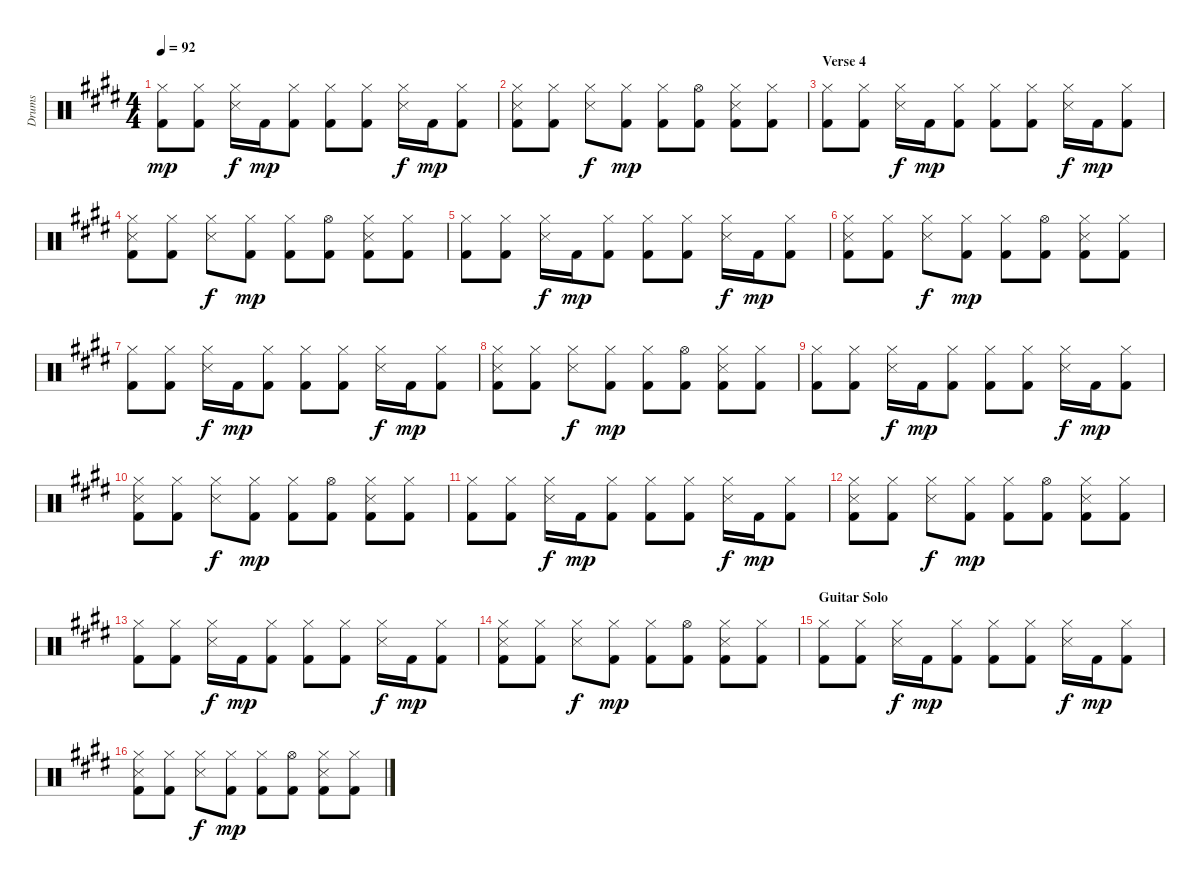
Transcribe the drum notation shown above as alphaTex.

\track ("Drums" "Drums") {instrument percussion}
\staff {score}
\articulation defaults
\ts (4 4)
\tempo 92
\clef neutral
\ks e
("Hi-Hat (closed)" "Kick (hit) 2").8{dy mp} ("Hi-Hat (closed)" "Kick (hit) 2").8 ("Hi-Hat (closed)" "Snare (side stick) 3").16{dy f} "Kick (hit) 2".16{dy mp} ("Hi-Hat (closed)" "Kick (hit) 2").8 ("Hi-Hat (closed)" "Kick (hit) 2").8 ("Hi-Hat (closed)" "Kick (hit) 2").8 ("Hi-Hat (closed)" "Snare (side stick) 3").16{dy f} "Kick (hit) 2".16{dy mp} ("Hi-Hat (closed)" "Kick (hit) 2").8 |
("Hi-Hat (closed)" "Snare (side stick) 3" "Kick (hit) 2").8 ("Hi-Hat (closed)" "Kick (hit) 2").8 ("Hi-Hat (closed)" "Snare (side stick) 3").8{dy f} ("Hi-Hat (closed)" "Kick (hit) 2").8{dy mp} ("Hi-Hat (closed)" "Kick (hit) 2").8 ("Hi-Hat (open)" "Kick (hit) 2").8 ("Hi-Hat (closed)" "Snare (side stick) 3" "Kick (hit) 2").8 ("Hi-Hat (closed)" "Kick (hit) 2").8 |
\section ("" "Verse 4")
("Hi-Hat (closed)" "Kick (hit) 2").8 ("Hi-Hat (closed)" "Kick (hit) 2").8 ("Hi-Hat (closed)" "Snare (side stick) 3").16{dy f} "Kick (hit) 2".16{dy mp} ("Hi-Hat (closed)" "Kick (hit) 2").8 ("Hi-Hat (closed)" "Kick (hit) 2").8 ("Hi-Hat (closed)" "Kick (hit) 2").8 ("Hi-Hat (closed)" "Snare (side stick) 3").16{dy f} "Kick (hit) 2".16{dy mp} ("Hi-Hat (closed)" "Kick (hit) 2").8 |
("Hi-Hat (closed)" "Snare (side stick) 3" "Kick (hit) 2").8 ("Hi-Hat (closed)" "Kick (hit) 2").8 ("Hi-Hat (closed)" "Snare (side stick) 3").8{dy f} ("Hi-Hat (closed)" "Kick (hit) 2").8{dy mp} ("Hi-Hat (closed)" "Kick (hit) 2").8 ("Hi-Hat (open)" "Kick (hit) 2").8 ("Hi-Hat (closed)" "Snare (side stick) 3" "Kick (hit) 2").8 ("Hi-Hat (closed)" "Kick (hit) 2").8 |
("Hi-Hat (closed)" "Kick (hit) 2").8 ("Hi-Hat (closed)" "Kick (hit) 2").8 ("Hi-Hat (closed)" "Snare (side stick) 3").16{dy f} "Kick (hit) 2".16{dy mp} ("Hi-Hat (closed)" "Kick (hit) 2").8 ("Hi-Hat (closed)" "Kick (hit) 2").8 ("Hi-Hat (closed)" "Kick (hit) 2").8 ("Hi-Hat (closed)" "Snare (side stick) 3").16{dy f} "Kick (hit) 2".16{dy mp} ("Hi-Hat (closed)" "Kick (hit) 2").8 |
("Hi-Hat (closed)" "Snare (side stick) 3" "Kick (hit) 2").8 ("Hi-Hat (closed)" "Kick (hit) 2").8 ("Hi-Hat (closed)" "Snare (side stick) 3").8{dy f} ("Hi-Hat (closed)" "Kick (hit) 2").8{dy mp} ("Hi-Hat (closed)" "Kick (hit) 2").8 ("Hi-Hat (open)" "Kick (hit) 2").8 ("Hi-Hat (closed)" "Snare (side stick) 3" "Kick (hit) 2").8 ("Hi-Hat (closed)" "Kick (hit) 2").8 |
("Hi-Hat (closed)" "Kick (hit) 2").8 ("Hi-Hat (closed)" "Kick (hit) 2").8 ("Hi-Hat (closed)" "Snare (side stick) 3").16{dy f} "Kick (hit) 2".16{dy mp} ("Hi-Hat (closed)" "Kick (hit) 2").8 ("Hi-Hat (closed)" "Kick (hit) 2").8 ("Hi-Hat (closed)" "Kick (hit) 2").8 ("Hi-Hat (closed)" "Snare (side stick) 3").16{dy f} "Kick (hit) 2".16{dy mp} ("Hi-Hat (closed)" "Kick (hit) 2").8 |
("Hi-Hat (closed)" "Snare (side stick) 3" "Kick (hit) 2").8 ("Hi-Hat (closed)" "Kick (hit) 2").8 ("Hi-Hat (closed)" "Snare (side stick) 3").8{dy f} ("Hi-Hat (closed)" "Kick (hit) 2").8{dy mp} ("Hi-Hat (closed)" "Kick (hit) 2").8 ("Hi-Hat (open)" "Kick (hit) 2").8 ("Hi-Hat (closed)" "Snare (side stick) 3" "Kick (hit) 2").8 ("Hi-Hat (closed)" "Kick (hit) 2").8 |
("Hi-Hat (closed)" "Kick (hit) 2").8 ("Hi-Hat (closed)" "Kick (hit) 2").8 ("Hi-Hat (closed)" "Snare (side stick) 3").16{dy f} "Kick (hit) 2".16{dy mp} ("Hi-Hat (closed)" "Kick (hit) 2").8 ("Hi-Hat (closed)" "Kick (hit) 2").8 ("Hi-Hat (closed)" "Kick (hit) 2").8 ("Hi-Hat (closed)" "Snare (side stick) 3").16{dy f} "Kick (hit) 2".16{dy mp} ("Hi-Hat (closed)" "Kick (hit) 2").8 |
("Hi-Hat (closed)" "Snare (side stick) 3" "Kick (hit) 2").8 ("Hi-Hat (closed)" "Kick (hit) 2").8 ("Hi-Hat (closed)" "Snare (side stick) 3").8{dy f} ("Hi-Hat (closed)" "Kick (hit) 2").8{dy mp} ("Hi-Hat (closed)" "Kick (hit) 2").8 ("Hi-Hat (open)" "Kick (hit) 2").8 ("Hi-Hat (closed)" "Snare (side stick) 3" "Kick (hit) 2").8 ("Hi-Hat (closed)" "Kick (hit) 2").8 |
("Hi-Hat (closed)" "Kick (hit) 2").8 ("Hi-Hat (closed)" "Kick (hit) 2").8 ("Hi-Hat (closed)" "Snare (side stick) 3").16{dy f} "Kick (hit) 2".16{dy mp} ("Hi-Hat (closed)" "Kick (hit) 2").8 ("Hi-Hat (closed)" "Kick (hit) 2").8 ("Hi-Hat (closed)" "Kick (hit) 2").8 ("Hi-Hat (closed)" "Snare (side stick) 3").16{dy f} "Kick (hit) 2".16{dy mp} ("Hi-Hat (closed)" "Kick (hit) 2").8 |
("Hi-Hat (closed)" "Snare (side stick) 3" "Kick (hit) 2").8 ("Hi-Hat (closed)" "Kick (hit) 2").8 ("Hi-Hat (closed)" "Snare (side stick) 3").8{dy f} ("Hi-Hat (closed)" "Kick (hit) 2").8{dy mp} ("Hi-Hat (closed)" "Kick (hit) 2").8 ("Hi-Hat (open)" "Kick (hit) 2").8 ("Hi-Hat (closed)" "Snare (side stick) 3" "Kick (hit) 2").8 ("Hi-Hat (closed)" "Kick (hit) 2").8 |
("Hi-Hat (closed)" "Kick (hit) 2").8 ("Hi-Hat (closed)" "Kick (hit) 2").8 ("Hi-Hat (closed)" "Snare (side stick) 3").16{dy f} "Kick (hit) 2".16{dy mp} ("Hi-Hat (closed)" "Kick (hit) 2").8 ("Hi-Hat (closed)" "Kick (hit) 2").8 ("Hi-Hat (closed)" "Kick (hit) 2").8 ("Hi-Hat (closed)" "Snare (side stick) 3").16{dy f} "Kick (hit) 2".16{dy mp} ("Hi-Hat (closed)" "Kick (hit) 2").8 |
("Hi-Hat (closed)" "Snare (side stick) 3" "Kick (hit) 2").8 ("Hi-Hat (closed)" "Kick (hit) 2").8 ("Hi-Hat (closed)" "Snare (side stick) 3").8{dy f} ("Hi-Hat (closed)" "Kick (hit) 2").8{dy mp} ("Hi-Hat (closed)" "Kick (hit) 2").8 ("Hi-Hat (open)" "Kick (hit) 2").8 ("Hi-Hat (closed)" "Snare (side stick) 3" "Kick (hit) 2").8 ("Hi-Hat (closed)" "Kick (hit) 2").8 |
\section ("" "Guitar Solo")
("Hi-Hat (closed)" "Kick (hit) 2").8 ("Hi-Hat (closed)" "Kick (hit) 2").8 ("Hi-Hat (closed)" "Snare (side stick) 3").16{dy f} "Kick (hit) 2".16{dy mp} ("Hi-Hat (closed)" "Kick (hit) 2").8 ("Hi-Hat (closed)" "Kick (hit) 2").8 ("Hi-Hat (closed)" "Kick (hit) 2").8 ("Hi-Hat (closed)" "Snare (side stick) 3").16{dy f} "Kick (hit) 2".16{dy mp} ("Hi-Hat (closed)" "Kick (hit) 2").8 |
("Hi-Hat (closed)" "Snare (side stick) 3" "Kick (hit) 2").8 ("Hi-Hat (closed)" "Kick (hit) 2").8 ("Hi-Hat (closed)" "Snare (side stick) 3").8{dy f} ("Hi-Hat (closed)" "Kick (hit) 2").8{dy mp} ("Hi-Hat (closed)" "Kick (hit) 2").8 ("Hi-Hat (open)" "Kick (hit) 2").8 ("Hi-Hat (closed)" "Snare (side stick) 3" "Kick (hit) 2").8 ("Hi-Hat (closed)" "Kick (hit) 2").8
